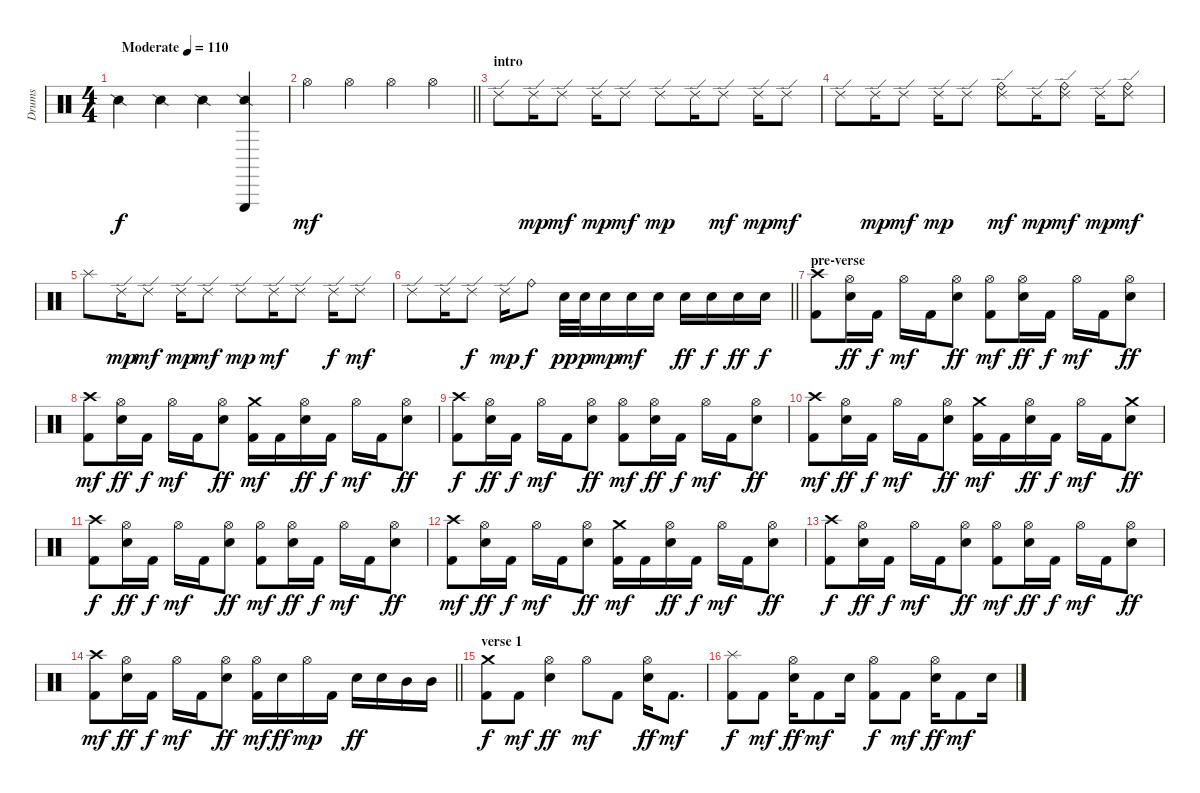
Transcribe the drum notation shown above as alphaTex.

\track ("Drums" "Drums") {instrument percussion}
\staff {score}
\articulation defaults
\ts (4 4)
\tempo (110 "Moderate")
\clef neutral
\ks c "Snare (side stick) 2".4{dy f} "Snare (side stick) 2".4 "Snare (side stick) 2".4
("Triangle (hit)" "Snare (side stick) 2").4 |
\barLineRight lightlight "Hi-Hat (open)".4{dy mf} "Hi-Hat (open)".4 "Hi-Hat (open)".4 "Hi-Hat (open)".4
|
\section ("" "intro")
"Ride (edge) 2".8 "Ride (edge) 2".16{dy mp} "Ride (edge) 2".8{dy mf} "Ride (edge) 2".16{dy mp} "Ride (edge) 2".8{dy mf} "Ride (edge) 2".8{dy mp} "Ride (edge) 2".16 "Ride (edge) 2".8{dy mf} "Ride (edge) 2".16{dy mp} "Ride (edge) 2".8{dy mf} |
"Ride (edge) 2".8 "Ride (edge) 2".16{dy mp} "Ride (edge) 2".8{dy mf} "Ride (edge) 2".16{dy mp} "Ride (edge) 2".8 ("Ride (bell)" "Ride (edge) 2").8{dy mf} "Ride (edge) 2".16{dy mp} ("Ride (bell)" "Ride (edge) 2").8{dy mf} "Ride (edge) 2".16{dy mp} ("Ride (bell)" "Ride (edge) 2").8{dy mf} |
"Splash (hit)".8 "Ride (edge) 2".16{dy mp} "Ride (edge) 2".8{dy mf} "Ride (edge) 2".16{dy mp} "Ride (edge) 2".8{dy mf} "Ride (edge) 2".8{dy mp} "Ride (edge) 2".16{dy mf} "Ride (edge) 2".8 "Ride (edge) 2".16{dy f} "Ride (edge) 2".8{dy mf} |
\barLineRight lightlight "Ride (edge) 2".8 "Ride (edge) 2".16 "Ride (edge) 2".8{dy f} "Ride (edge) 2".16{dy mp} "Ride (bell)".8{dy f} "Snare (hit) 2".32{dy pp} "Snare (hit) 2".32{dy p} "Snare (hit) 2".16{dy mp} "Snare (hit) 2".16{dy mf} "Snare (hit) 2".16 "Snare (hit) 2".16{dy ff} "Snare (hit) 2".16{dy f} "Snare (hit) 2".16{dy ff} "Snare (hit) 2".16{dy f}
|
\section ("" "pre-verse")
("Crash high (hit)" "Kick (hit) 2").8 ("Hi-Hat (open)" "Snare (hit) 2").16{dy ff} "Kick (hit) 2".16{dy f} "Hi-Hat (open)".16{dy mf} "Kick (hit) 2".16 ("Hi-Hat (open)" "Snare (hit) 2").8{dy ff} ("Hi-Hat (open)" "Kick (hit) 2").8{dy mf} ("Hi-Hat (open)" "Snare (hit) 2").16{dy ff} "Kick (hit) 2".16{dy f} "Hi-Hat (open)".16{dy mf} "Kick (hit) 2".16 ("Hi-Hat (open)" "Snare (hit) 2").8{dy ff} |
("Crash high (hit)" "Kick (hit) 2").8{dy mf} ("Hi-Hat (open)" "Snare (hit) 2").16{dy ff} "Kick (hit) 2".16{dy f} "Hi-Hat (open)".16{dy mf} "Kick (hit) 2".16 ("Hi-Hat (open)" "Snare (hit) 2").8{dy ff} ("Crash medium (hit)" "Kick (hit) 2").16{dy mf} "Kick (hit) 2".16 ("Hi-Hat (open)" "Snare (hit) 2").16{dy ff} "Kick (hit) 2".16{dy f} "Hi-Hat (open)".16{dy mf} "Kick (hit) 2".16 ("Hi-Hat (open)" "Snare (hit) 2").8{dy ff} |
("Crash high (hit)" "Kick (hit) 2").8{dy f} ("Hi-Hat (open)" "Snare (hit) 2").16{dy ff} "Kick (hit) 2".16{dy f} "Hi-Hat (open)".16{dy mf} "Kick (hit) 2".16 ("Hi-Hat (open)" "Snare (hit) 2").8{dy ff} ("Hi-Hat (open)" "Kick (hit) 2").8{dy mf} ("Hi-Hat (open)" "Snare (hit) 2").16{dy ff} "Kick (hit) 2".16{dy f} "Hi-Hat (open)".16{dy mf} "Kick (hit) 2".16 ("Hi-Hat (open)" "Snare (hit) 2").8{dy ff} |
("Crash high (hit)" "Kick (hit) 2").8{dy mf} ("Hi-Hat (open)" "Snare (hit) 2").16{dy ff} "Kick (hit) 2".16{dy f} "Hi-Hat (open)".16{dy mf} "Kick (hit) 2".16 ("Hi-Hat (open)" "Snare (hit) 2").8{dy ff} ("Crash medium (hit)" "Kick (hit) 2").16{dy mf} "Kick (hit) 2".16 ("Hi-Hat (open)" "Snare (hit) 2").16{dy ff} "Kick (hit) 2".16{dy f} "Hi-Hat (open)".16{dy mf} "Kick (hit) 2".16 ("Crash medium (hit)" "Snare (hit) 2").8{dy ff} |
("Crash high (hit)" "Kick (hit) 2").8{dy f} ("Hi-Hat (open)" "Snare (hit) 2").16{dy ff} "Kick (hit) 2".16{dy f} "Hi-Hat (open)".16{dy mf} "Kick (hit) 2".16 ("Hi-Hat (open)" "Snare (hit) 2").8{dy ff} ("Hi-Hat (open)" "Kick (hit) 2").8{dy mf} ("Hi-Hat (open)" "Snare (hit) 2").16{dy ff} "Kick (hit) 2".16{dy f} "Hi-Hat (open)".16{dy mf} "Kick (hit) 2".16 ("Hi-Hat (open)" "Snare (hit) 2").8{dy ff} |
("Crash high (hit)" "Kick (hit) 2").8{dy mf} ("Hi-Hat (open)" "Snare (hit) 2").16{dy ff} "Kick (hit) 2".16{dy f} "Hi-Hat (open)".16{dy mf} "Kick (hit) 2".16 ("Hi-Hat (open)" "Snare (hit) 2").8{dy ff} ("Crash medium (hit)" "Kick (hit) 2").16{dy mf} "Kick (hit) 2".16 ("Hi-Hat (open)" "Snare (hit) 2").16{dy ff} "Kick (hit) 2".16{dy f} "Hi-Hat (open)".16{dy mf} "Kick (hit) 2".16 ("Hi-Hat (open)" "Snare (hit) 2").8{dy ff} |
("Crash high (hit)" "Kick (hit) 2").8{dy f} ("Hi-Hat (open)" "Snare (hit) 2").16{dy ff} "Kick (hit) 2".16{dy f} "Hi-Hat (open)".16{dy mf} "Kick (hit) 2".16 ("Hi-Hat (open)" "Snare (hit) 2").8{dy ff} ("Hi-Hat (open)" "Kick (hit) 2").8{dy mf} ("Hi-Hat (open)" "Snare (hit) 2").16{dy ff} "Kick (hit) 2".16{dy f} "Hi-Hat (open)".16{dy mf} "Kick (hit) 2".16 ("Hi-Hat (open)" "Snare (hit) 2").8{dy ff} |
\barLineRight lightlight
("Crash high (hit)" "Kick (hit) 2").8{dy mf} ("Hi-Hat (open)" "Snare (hit) 2").16{dy ff} "Kick (hit) 2".16{dy f} "Hi-Hat (open)".16{dy mf} "Kick (hit) 2".16 ("Hi-Hat (open)" "Snare (hit) 2").8{dy ff} ("Hi-Hat (open)" "Kick (hit) 2").16{dy mf} "Snare (hit) 2".16{dy ff} "Hi-Hat (open)".16{dy mp} "Kick (hit) 2".16 "Snare (hit) 2".16{dy ff} "Snare (hit) 2".16 "Mid Tom (hit)".16 "Mid Tom (hit)".16 |
\section ("" "verse 1")
("Crash medium (hit)" "Kick (hit) 2").8{dy f} "Kick (hit) 2".8{dy mf} ("Hi-Hat (open)" "Snare (hit) 2").4{dy ff} "Hi-Hat (open)".8{dy mf} "Kick (hit) 2".8 ("Hi-Hat (open)" "Snare (hit) 2").16{dy ff} "Kick (hit) 2".8{d dy mf} |
("Splash (hit)" "Kick (hit) 2").8{dy f} "Kick (hit) 2".8{dy mf} ("Hi-Hat (open)" "Snare (hit) 2").16{dy ff} "Kick (hit) 2".8{dy mf} "Snare (hit) 2".16 ("Hi-Hat (open)" "Kick (hit) 2").8{dy f} "Kick (hit) 2".8{dy mf} ("Hi-Hat (open)" "Snare (hit) 2").16{dy ff} "Kick (hit) 2".8{dy mf} "Snare (hit) 2".16
